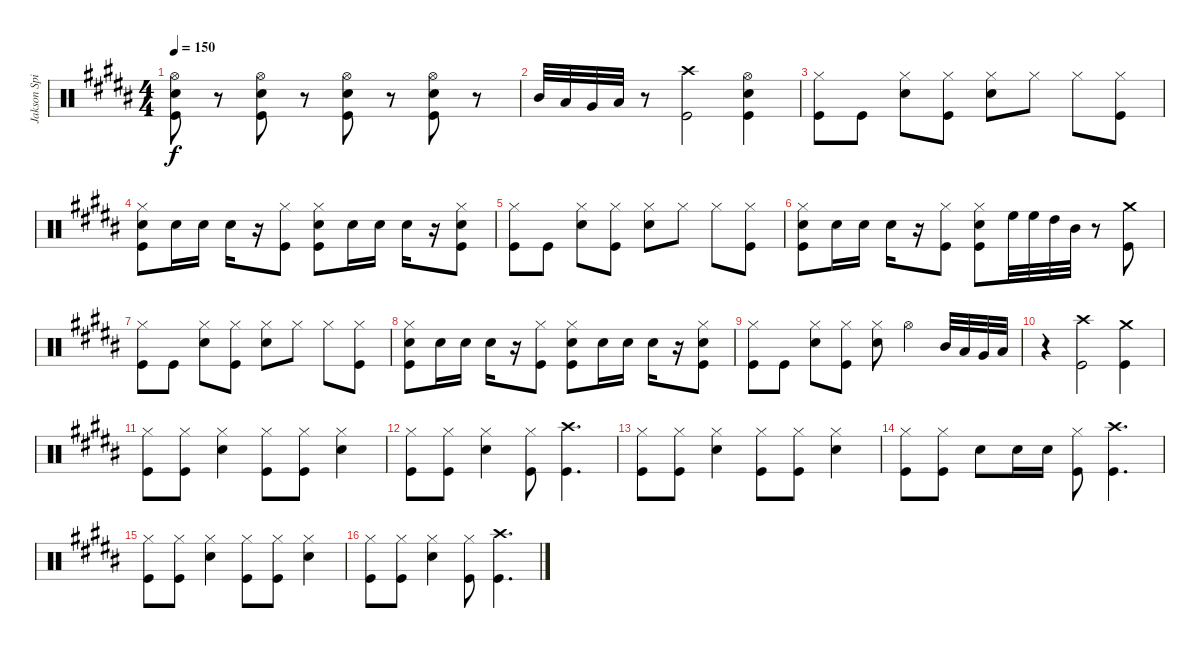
\track ("Jakson Spires Drums" "Jakson Spi") {instrument percussion}
\staff {score}
\articulation defaults
\ts (4 4)
\tempo 150
\clef neutral
\ks b
("Hi-Hat (open)" "Snare (hit) 2" "Kick (hit)").8{dy f} r.8 ("Hi-Hat (open)" "Snare (hit) 2" "Kick (hit)").8 r.8 ("Hi-Hat (open)" "Snare (hit) 2" "Kick (hit)").8 r.8 ("Hi-Hat (open)" "Snare (hit) 2" "Kick (hit)").8 r.8 |
"Mid Tom (hit)".32 "Low Tom (hit)".32 "Very Low Tom (hit)".32 "Low Floor Tom (hit)".32 r.8 ("Crash high (hit)" "Kick (hit)").2 ("Hi-Hat (open)" "Snare (hit) 2" "Kick (hit)").4 |
("Hi-Hat (closed)" "Kick (hit)").8 "Kick (hit)".8 ("Hi-Hat (closed)" "Snare (hit) 2").8 ("Hi-Hat (closed)" "Kick (hit)").8 ("Hi-Hat (closed)" "Snare (hit) 2").8 "Hi-Hat (closed)".8 "Hi-Hat (closed)".8 ("Hi-Hat (closed)" "Kick (hit)").8 |
("Hi-Hat (closed)" "Snare (hit) 2" "Kick (hit)").8 "Snare (hit) 2".16 "Snare (hit) 2".16 "Snare (hit) 2".16 r.16 ("Hi-Hat (closed)" "Kick (hit)").8 ("Hi-Hat (closed)" "Snare (hit) 2" "Kick (hit)").8 "Snare (hit) 2".16 "Snare (hit) 2".16 "Snare (hit) 2".16 r.16 ("Hi-Hat (closed)" "Snare (hit) 2" "Kick (hit)").8 |
("Hi-Hat (closed)" "Kick (hit)").8 "Kick (hit)".8 ("Hi-Hat (closed)" "Snare (hit) 2").8 ("Hi-Hat (closed)" "Kick (hit)").8 ("Hi-Hat (closed)" "Snare (hit) 2").8 "Hi-Hat (closed)".8 "Hi-Hat (closed)".8 ("Hi-Hat (closed)" "Kick (hit)").8 |
("Hi-Hat (closed)" "Snare (hit) 2" "Kick (hit)").8 "Snare (hit) 2".16 "Snare (hit) 2".16 "Snare (hit) 2".16 r.16 ("Hi-Hat (closed)" "Kick (hit)").8 ("Hi-Hat (closed)" "Snare (hit) 2" "Kick (hit)").8 "High Floor Tom (hit)".32 "High Floor Tom (hit)".32 "High Tom (hit)".32 "Mid Tom (hit)".32 r.8 ("Crash medium (hit)" "Kick (hit)").8 |
("Hi-Hat (closed)" "Kick (hit)").8 "Kick (hit)".8 ("Hi-Hat (closed)" "Snare (hit) 2").8 ("Hi-Hat (closed)" "Kick (hit)").8 ("Hi-Hat (closed)" "Snare (hit) 2").8 "Hi-Hat (closed)".8 "Hi-Hat (closed)".8 ("Hi-Hat (closed)" "Kick (hit)").8 |
("Hi-Hat (closed)" "Snare (hit) 2" "Kick (hit)").8 "Snare (hit) 2".16 "Snare (hit) 2".16 "Snare (hit) 2".16 r.16 ("Hi-Hat (closed)" "Kick (hit)").8 ("Hi-Hat (closed)" "Snare (hit) 2" "Kick (hit)").8 "Snare (hit) 2".16 "Snare (hit) 2".16 "Snare (hit) 2".16 r.16 ("Hi-Hat (closed)" "Snare (hit) 2" "Kick (hit)").8 |
("Hi-Hat (closed)" "Kick (hit)").8 "Kick (hit)".8 ("Hi-Hat (closed)" "Snare (hit) 2").8 ("Hi-Hat (closed)" "Kick (hit)").8 ("Hi-Hat (closed)" "Snare (hit) 2").8 "Hi-Hat (open)".4 "Mid Tom (hit)".32 "Low Tom (hit)".32 "Very Low Tom (hit)".32 "Low Floor Tom (hit)".32 |
r.4 ("Crash high (hit)" "Kick (hit)").2 ("Crash medium (hit)" "Kick (hit)").4 |
("Hi-Hat (closed)" "Kick (hit)").8 ("Hi-Hat (closed)" "Kick (hit)").8 ("Hi-Hat (closed)" "Snare (hit) 2").4 ("Hi-Hat (closed)" "Kick (hit)").8 ("Hi-Hat (closed)" "Kick (hit)").8 ("Hi-Hat (closed)" "Snare (hit) 2").4 |
("Hi-Hat (closed)" "Kick (hit)").8 ("Hi-Hat (closed)" "Kick (hit)").8 ("Hi-Hat (closed)" "Snare (hit) 2").4 ("Hi-Hat (closed)" "Kick (hit)").8 ("Crash high (hit)" "Kick (hit)").4{d} |
("Hi-Hat (closed)" "Kick (hit)").8 ("Hi-Hat (closed)" "Kick (hit)").8 ("Hi-Hat (closed)" "Snare (hit) 2").4 ("Hi-Hat (closed)" "Kick (hit)").8 ("Hi-Hat (closed)" "Kick (hit)").8 ("Hi-Hat (closed)" "Snare (hit) 2").4 |
("Hi-Hat (closed)" "Kick (hit)").8 ("Hi-Hat (closed)" "Kick (hit)").8 "Snare (hit) 2".8 "Snare (hit) 2".16 "Snare (hit) 2".16 ("Hi-Hat (closed)" "Kick (hit)").8 ("Crash high (hit)" "Kick (hit)").4{d} |
("Hi-Hat (closed)" "Kick (hit)").8 ("Hi-Hat (closed)" "Kick (hit)").8 ("Hi-Hat (closed)" "Snare (hit) 2").4 ("Hi-Hat (closed)" "Kick (hit)").8 ("Hi-Hat (closed)" "Kick (hit)").8 ("Hi-Hat (closed)" "Snare (hit) 2").4 |
("Hi-Hat (closed)" "Kick (hit)").8 ("Hi-Hat (closed)" "Kick (hit)").8 ("Hi-Hat (closed)" "Snare (hit) 2").4 ("Hi-Hat (closed)" "Kick (hit)").8 ("Crash high (hit)" "Kick (hit)").4{d}
